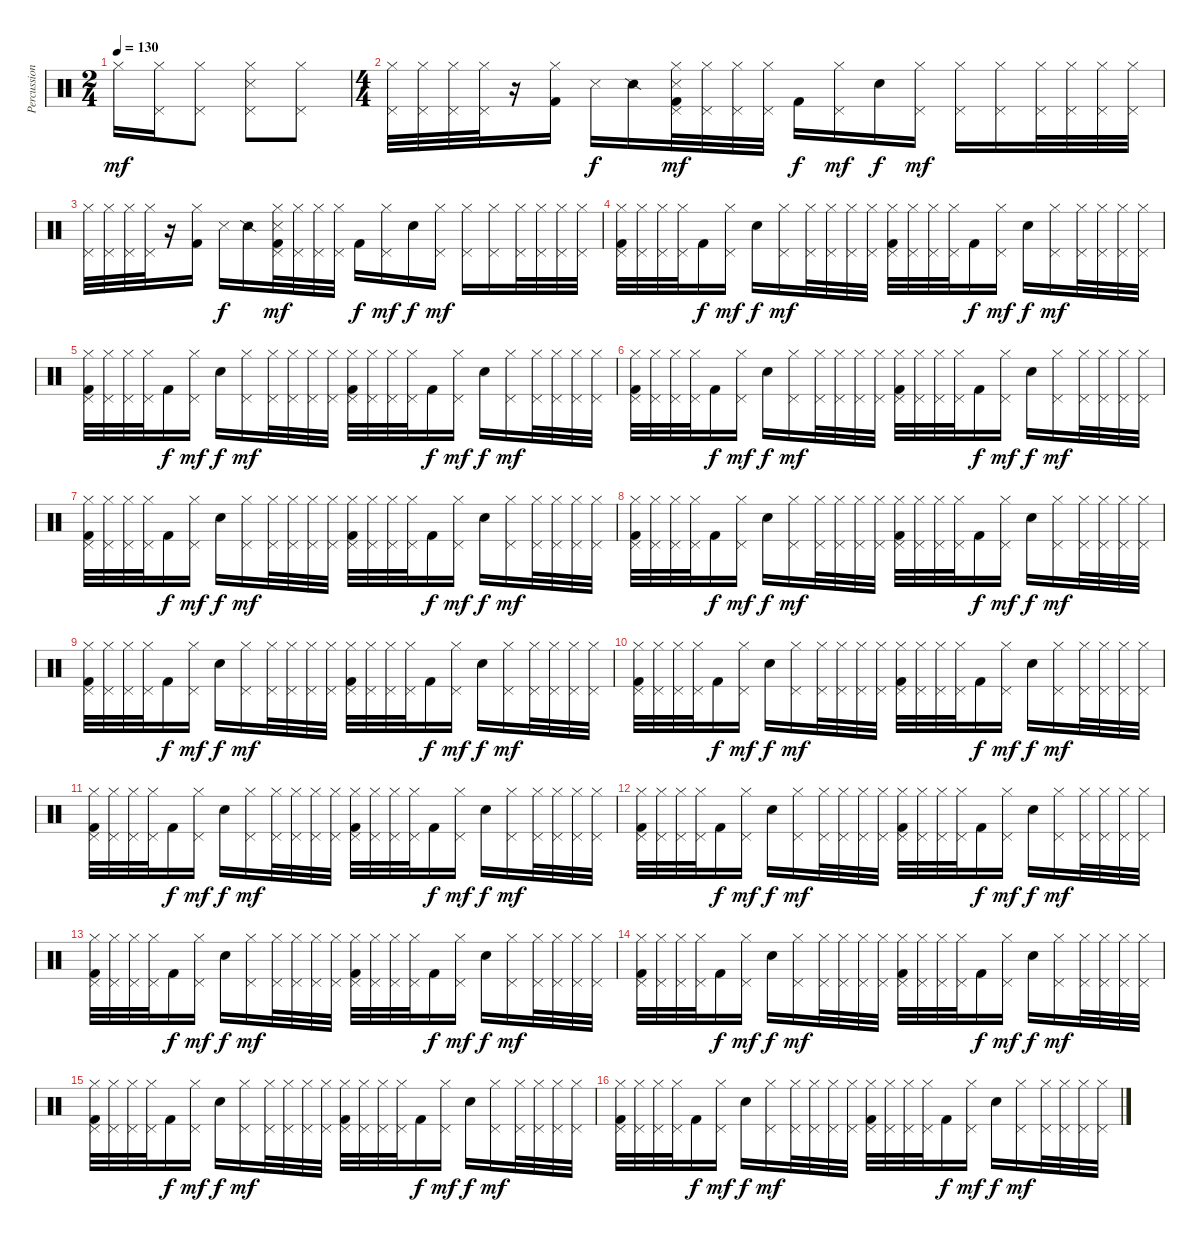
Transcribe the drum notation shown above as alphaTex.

\track ("Percussion" "Percussion") {instrument percussion}
\staff {score}
\articulation defaults
\ts (2 4)
\tempo 130
\clef neutral
\ks c "Hi-Hat (closed)".16{dy mf}
("Hi-Hat (closed)" "Pedal Hi-Hat (hit)").16 ("Hi-Hat (closed)" "Pedal Hi-Hat (hit)").8 ("Snare (side stick) 3" "Hi-Hat (closed)" "Pedal Hi-Hat (hit)").8 ("Hi-Hat (closed)" "Pedal Hi-Hat (hit)").8 |
\ts (4 4)
("Hi-Hat (closed)" "Pedal Hi-Hat (hit)").32 ("Hi-Hat (closed)" "Pedal Hi-Hat (hit)").32 ("Hi-Hat (closed)" "Pedal Hi-Hat (hit)").32 ("Hi-Hat (closed)" "Pedal Hi-Hat (hit)").32 r.16 ("Kick (hit) 2" "Hi-Hat (closed)").16 "Snare (side stick) 3".16{dy f} "Snare (side stick) 2".16 ("Kick (hit) 2" "Snare (side stick) 3" "Hi-Hat (closed)" "Pedal Hi-Hat (hit)").32{dy mf} ("Hi-Hat (closed)" "Pedal Hi-Hat (hit)").32 ("Hi-Hat (closed)" "Pedal Hi-Hat (hit)").32 ("Hi-Hat (closed)" "Pedal Hi-Hat (hit)").32 "Kick (hit) 2".16{dy f} ("Hi-Hat (closed)" "Pedal Hi-Hat (hit)").16{dy mf} "Electric Snare (hit)".16{dy f} ("Hi-Hat (closed)" "Pedal Hi-Hat (hit)").16{dy mf} ("Hi-Hat (closed)" "Pedal Hi-Hat (hit)").16 ("Hi-Hat (closed)" "Pedal Hi-Hat (hit)").16 ("Hi-Hat (closed)" "Pedal Hi-Hat (hit)").32 ("Hi-Hat (closed)" "Pedal Hi-Hat (hit)").32 ("Hi-Hat (closed)" "Pedal Hi-Hat (hit)").32 ("Hi-Hat (closed)" "Pedal Hi-Hat (hit)").32 |
("Hi-Hat (closed)" "Pedal Hi-Hat (hit)").32 ("Hi-Hat (closed)" "Pedal Hi-Hat (hit)").32 ("Hi-Hat (closed)" "Pedal Hi-Hat (hit)").32 ("Hi-Hat (closed)" "Pedal Hi-Hat (hit)").32 r.16 ("Kick (hit) 2" "Hi-Hat (closed)").16 "Snare (side stick) 3".16{dy f} "Snare (side stick) 2".16 ("Kick (hit) 2" "Snare (side stick) 3" "Hi-Hat (closed)" "Pedal Hi-Hat (hit)").32{dy mf} ("Hi-Hat (closed)" "Pedal Hi-Hat (hit)").32 ("Hi-Hat (closed)" "Pedal Hi-Hat (hit)").32 ("Hi-Hat (closed)" "Pedal Hi-Hat (hit)").32 "Kick (hit) 2".16{dy f} ("Hi-Hat (closed)" "Pedal Hi-Hat (hit)").16{dy mf} "Electric Snare (hit)".16{dy f} ("Hi-Hat (closed)" "Pedal Hi-Hat (hit)").16{dy mf} ("Hi-Hat (closed)" "Pedal Hi-Hat (hit)").16 ("Hi-Hat (closed)" "Pedal Hi-Hat (hit)").16 ("Hi-Hat (closed)" "Pedal Hi-Hat (hit)").32 ("Hi-Hat (closed)" "Pedal Hi-Hat (hit)").32 ("Hi-Hat (closed)" "Pedal Hi-Hat (hit)").32 ("Hi-Hat (closed)" "Pedal Hi-Hat (hit)").32 |
("Kick (hit) 2" "Hi-Hat (closed)" "Pedal Hi-Hat (hit)").32 ("Hi-Hat (closed)" "Pedal Hi-Hat (hit)").32 ("Hi-Hat (closed)" "Pedal Hi-Hat (hit)").32 ("Hi-Hat (closed)" "Pedal Hi-Hat (hit)").32 "Kick (hit) 2".16{dy f} ("Hi-Hat (closed)" "Pedal Hi-Hat (hit)").16{dy mf} "Electric Snare (hit)".16{dy f} ("Hi-Hat (closed)" "Pedal Hi-Hat (hit)").16{dy mf} ("Hi-Hat (closed)" "Pedal Hi-Hat (hit)").32 ("Hi-Hat (closed)" "Pedal Hi-Hat (hit)").32 ("Hi-Hat (closed)" "Pedal Hi-Hat (hit)").32 ("Hi-Hat (closed)" "Pedal Hi-Hat (hit)").32 ("Kick (hit) 2" "Hi-Hat (closed)" "Pedal Hi-Hat (hit)").32 ("Hi-Hat (closed)" "Pedal Hi-Hat (hit)").32 ("Hi-Hat (closed)" "Pedal Hi-Hat (hit)").32 ("Hi-Hat (closed)" "Pedal Hi-Hat (hit)").32 "Kick (hit) 2".16{dy f} ("Hi-Hat (closed)" "Pedal Hi-Hat (hit)").16{dy mf} "Electric Snare (hit)".16{dy f} ("Hi-Hat (closed)" "Pedal Hi-Hat (hit)").16{dy mf} ("Hi-Hat (closed)" "Pedal Hi-Hat (hit)").32 ("Hi-Hat (closed)" "Pedal Hi-Hat (hit)").32 ("Hi-Hat (closed)" "Pedal Hi-Hat (hit)").32 ("Hi-Hat (closed)" "Pedal Hi-Hat (hit)").32 |
("Kick (hit) 2" "Hi-Hat (closed)" "Pedal Hi-Hat (hit)").32 ("Hi-Hat (closed)" "Pedal Hi-Hat (hit)").32 ("Hi-Hat (closed)" "Pedal Hi-Hat (hit)").32 ("Hi-Hat (closed)" "Pedal Hi-Hat (hit)").32 "Kick (hit) 2".16{dy f} ("Hi-Hat (closed)" "Pedal Hi-Hat (hit)").16{dy mf} "Electric Snare (hit)".16{dy f} ("Hi-Hat (closed)" "Pedal Hi-Hat (hit)").16{dy mf} ("Hi-Hat (closed)" "Pedal Hi-Hat (hit)").32 ("Hi-Hat (closed)" "Pedal Hi-Hat (hit)").32 ("Hi-Hat (closed)" "Pedal Hi-Hat (hit)").32 ("Hi-Hat (closed)" "Pedal Hi-Hat (hit)").32 ("Kick (hit) 2" "Hi-Hat (closed)" "Pedal Hi-Hat (hit)").32 ("Hi-Hat (closed)" "Pedal Hi-Hat (hit)").32 ("Hi-Hat (closed)" "Pedal Hi-Hat (hit)").32 ("Hi-Hat (closed)" "Pedal Hi-Hat (hit)").32 "Kick (hit) 2".16{dy f} ("Hi-Hat (closed)" "Pedal Hi-Hat (hit)").16{dy mf} "Electric Snare (hit)".16{dy f} ("Hi-Hat (closed)" "Pedal Hi-Hat (hit)").16{dy mf} ("Hi-Hat (closed)" "Pedal Hi-Hat (hit)").32 ("Hi-Hat (closed)" "Pedal Hi-Hat (hit)").32 ("Hi-Hat (closed)" "Pedal Hi-Hat (hit)").32 ("Hi-Hat (closed)" "Pedal Hi-Hat (hit)").32 |
("Kick (hit) 2" "Hi-Hat (closed)" "Pedal Hi-Hat (hit)").32 ("Hi-Hat (closed)" "Pedal Hi-Hat (hit)").32 ("Hi-Hat (closed)" "Pedal Hi-Hat (hit)").32 ("Hi-Hat (closed)" "Pedal Hi-Hat (hit)").32 "Kick (hit) 2".16{dy f} ("Hi-Hat (closed)" "Pedal Hi-Hat (hit)").16{dy mf} "Electric Snare (hit)".16{dy f} ("Hi-Hat (closed)" "Pedal Hi-Hat (hit)").16{dy mf} ("Hi-Hat (closed)" "Pedal Hi-Hat (hit)").32 ("Hi-Hat (closed)" "Pedal Hi-Hat (hit)").32 ("Hi-Hat (closed)" "Pedal Hi-Hat (hit)").32 ("Hi-Hat (closed)" "Pedal Hi-Hat (hit)").32 ("Kick (hit) 2" "Hi-Hat (closed)" "Pedal Hi-Hat (hit)").32 ("Hi-Hat (closed)" "Pedal Hi-Hat (hit)").32 ("Hi-Hat (closed)" "Pedal Hi-Hat (hit)").32 ("Hi-Hat (closed)" "Pedal Hi-Hat (hit)").32 "Kick (hit) 2".16{dy f} ("Hi-Hat (closed)" "Pedal Hi-Hat (hit)").16{dy mf} "Electric Snare (hit)".16{dy f} ("Hi-Hat (closed)" "Pedal Hi-Hat (hit)").16{dy mf} ("Hi-Hat (closed)" "Pedal Hi-Hat (hit)").32 ("Hi-Hat (closed)" "Pedal Hi-Hat (hit)").32 ("Hi-Hat (closed)" "Pedal Hi-Hat (hit)").32 ("Hi-Hat (closed)" "Pedal Hi-Hat (hit)").32 |
("Kick (hit) 2" "Hi-Hat (closed)" "Pedal Hi-Hat (hit)").32 ("Hi-Hat (closed)" "Pedal Hi-Hat (hit)").32 ("Hi-Hat (closed)" "Pedal Hi-Hat (hit)").32 ("Hi-Hat (closed)" "Pedal Hi-Hat (hit)").32 "Kick (hit) 2".16{dy f} ("Hi-Hat (closed)" "Pedal Hi-Hat (hit)").16{dy mf} "Electric Snare (hit)".16{dy f} ("Hi-Hat (closed)" "Pedal Hi-Hat (hit)").16{dy mf} ("Hi-Hat (closed)" "Pedal Hi-Hat (hit)").32 ("Hi-Hat (closed)" "Pedal Hi-Hat (hit)").32 ("Hi-Hat (closed)" "Pedal Hi-Hat (hit)").32 ("Hi-Hat (closed)" "Pedal Hi-Hat (hit)").32 ("Kick (hit) 2" "Hi-Hat (closed)" "Pedal Hi-Hat (hit)").32 ("Hi-Hat (closed)" "Pedal Hi-Hat (hit)").32 ("Hi-Hat (closed)" "Pedal Hi-Hat (hit)").32 ("Hi-Hat (closed)" "Pedal Hi-Hat (hit)").32 "Kick (hit) 2".16{dy f} ("Hi-Hat (closed)" "Pedal Hi-Hat (hit)").16{dy mf} "Electric Snare (hit)".16{dy f} ("Hi-Hat (closed)" "Pedal Hi-Hat (hit)").16{dy mf} ("Hi-Hat (closed)" "Pedal Hi-Hat (hit)").32 ("Hi-Hat (closed)" "Pedal Hi-Hat (hit)").32 ("Hi-Hat (closed)" "Pedal Hi-Hat (hit)").32 ("Hi-Hat (closed)" "Pedal Hi-Hat (hit)").32 |
("Kick (hit) 2" "Hi-Hat (closed)" "Pedal Hi-Hat (hit)").32 ("Hi-Hat (closed)" "Pedal Hi-Hat (hit)").32 ("Hi-Hat (closed)" "Pedal Hi-Hat (hit)").32 ("Hi-Hat (closed)" "Pedal Hi-Hat (hit)").32 "Kick (hit) 2".16{dy f} ("Hi-Hat (closed)" "Pedal Hi-Hat (hit)").16{dy mf} "Electric Snare (hit)".16{dy f} ("Hi-Hat (closed)" "Pedal Hi-Hat (hit)").16{dy mf} ("Hi-Hat (closed)" "Pedal Hi-Hat (hit)").32 ("Hi-Hat (closed)" "Pedal Hi-Hat (hit)").32 ("Hi-Hat (closed)" "Pedal Hi-Hat (hit)").32 ("Hi-Hat (closed)" "Pedal Hi-Hat (hit)").32 ("Kick (hit) 2" "Hi-Hat (closed)" "Pedal Hi-Hat (hit)").32 ("Hi-Hat (closed)" "Pedal Hi-Hat (hit)").32 ("Hi-Hat (closed)" "Pedal Hi-Hat (hit)").32 ("Hi-Hat (closed)" "Pedal Hi-Hat (hit)").32 "Kick (hit) 2".16{dy f} ("Hi-Hat (closed)" "Pedal Hi-Hat (hit)").16{dy mf} "Electric Snare (hit)".16{dy f} ("Hi-Hat (closed)" "Pedal Hi-Hat (hit)").16{dy mf} ("Hi-Hat (closed)" "Pedal Hi-Hat (hit)").32 ("Hi-Hat (closed)" "Pedal Hi-Hat (hit)").32 ("Hi-Hat (closed)" "Pedal Hi-Hat (hit)").32 ("Hi-Hat (closed)" "Pedal Hi-Hat (hit)").32 |
("Kick (hit) 2" "Hi-Hat (closed)" "Pedal Hi-Hat (hit)").32 ("Hi-Hat (closed)" "Pedal Hi-Hat (hit)").32 ("Hi-Hat (closed)" "Pedal Hi-Hat (hit)").32 ("Hi-Hat (closed)" "Pedal Hi-Hat (hit)").32 "Kick (hit) 2".16{dy f} ("Hi-Hat (closed)" "Pedal Hi-Hat (hit)").16{dy mf} "Electric Snare (hit)".16{dy f} ("Hi-Hat (closed)" "Pedal Hi-Hat (hit)").16{dy mf} ("Hi-Hat (closed)" "Pedal Hi-Hat (hit)").32 ("Hi-Hat (closed)" "Pedal Hi-Hat (hit)").32 ("Hi-Hat (closed)" "Pedal Hi-Hat (hit)").32 ("Hi-Hat (closed)" "Pedal Hi-Hat (hit)").32 ("Kick (hit) 2" "Hi-Hat (closed)" "Pedal Hi-Hat (hit)").32 ("Hi-Hat (closed)" "Pedal Hi-Hat (hit)").32 ("Hi-Hat (closed)" "Pedal Hi-Hat (hit)").32 ("Hi-Hat (closed)" "Pedal Hi-Hat (hit)").32 "Kick (hit) 2".16{dy f} ("Hi-Hat (closed)" "Pedal Hi-Hat (hit)").16{dy mf} "Electric Snare (hit)".16{dy f} ("Hi-Hat (closed)" "Pedal Hi-Hat (hit)").16{dy mf} ("Hi-Hat (closed)" "Pedal Hi-Hat (hit)").32 ("Hi-Hat (closed)" "Pedal Hi-Hat (hit)").32 ("Hi-Hat (closed)" "Pedal Hi-Hat (hit)").32 ("Hi-Hat (closed)" "Pedal Hi-Hat (hit)").32 |
("Kick (hit) 2" "Hi-Hat (closed)" "Pedal Hi-Hat (hit)").32 ("Hi-Hat (closed)" "Pedal Hi-Hat (hit)").32 ("Hi-Hat (closed)" "Pedal Hi-Hat (hit)").32 ("Hi-Hat (closed)" "Pedal Hi-Hat (hit)").32 "Kick (hit) 2".16{dy f} ("Hi-Hat (closed)" "Pedal Hi-Hat (hit)").16{dy mf} "Electric Snare (hit)".16{dy f} ("Hi-Hat (closed)" "Pedal Hi-Hat (hit)").16{dy mf} ("Hi-Hat (closed)" "Pedal Hi-Hat (hit)").32 ("Hi-Hat (closed)" "Pedal Hi-Hat (hit)").32 ("Hi-Hat (closed)" "Pedal Hi-Hat (hit)").32 ("Hi-Hat (closed)" "Pedal Hi-Hat (hit)").32 ("Kick (hit) 2" "Hi-Hat (closed)" "Pedal Hi-Hat (hit)").32 ("Hi-Hat (closed)" "Pedal Hi-Hat (hit)").32 ("Hi-Hat (closed)" "Pedal Hi-Hat (hit)").32 ("Hi-Hat (closed)" "Pedal Hi-Hat (hit)").32 "Kick (hit) 2".16{dy f} ("Hi-Hat (closed)" "Pedal Hi-Hat (hit)").16{dy mf} "Electric Snare (hit)".16{dy f} ("Hi-Hat (closed)" "Pedal Hi-Hat (hit)").16{dy mf} ("Hi-Hat (closed)" "Pedal Hi-Hat (hit)").32 ("Hi-Hat (closed)" "Pedal Hi-Hat (hit)").32 ("Hi-Hat (closed)" "Pedal Hi-Hat (hit)").32 ("Hi-Hat (closed)" "Pedal Hi-Hat (hit)").32 |
("Kick (hit) 2" "Hi-Hat (closed)" "Pedal Hi-Hat (hit)").32 ("Hi-Hat (closed)" "Pedal Hi-Hat (hit)").32 ("Hi-Hat (closed)" "Pedal Hi-Hat (hit)").32 ("Hi-Hat (closed)" "Pedal Hi-Hat (hit)").32 "Kick (hit) 2".16{dy f} ("Hi-Hat (closed)" "Pedal Hi-Hat (hit)").16{dy mf} "Electric Snare (hit)".16{dy f} ("Hi-Hat (closed)" "Pedal Hi-Hat (hit)").16{dy mf} ("Hi-Hat (closed)" "Pedal Hi-Hat (hit)").32 ("Hi-Hat (closed)" "Pedal Hi-Hat (hit)").32 ("Hi-Hat (closed)" "Pedal Hi-Hat (hit)").32 ("Hi-Hat (closed)" "Pedal Hi-Hat (hit)").32 ("Kick (hit) 2" "Hi-Hat (closed)" "Pedal Hi-Hat (hit)").32 ("Hi-Hat (closed)" "Pedal Hi-Hat (hit)").32 ("Hi-Hat (closed)" "Pedal Hi-Hat (hit)").32 ("Hi-Hat (closed)" "Pedal Hi-Hat (hit)").32 "Kick (hit) 2".16{dy f} ("Hi-Hat (closed)" "Pedal Hi-Hat (hit)").16{dy mf} "Electric Snare (hit)".16{dy f} ("Hi-Hat (closed)" "Pedal Hi-Hat (hit)").16{dy mf} ("Hi-Hat (closed)" "Pedal Hi-Hat (hit)").32 ("Hi-Hat (closed)" "Pedal Hi-Hat (hit)").32 ("Hi-Hat (closed)" "Pedal Hi-Hat (hit)").32 ("Hi-Hat (closed)" "Pedal Hi-Hat (hit)").32 |
("Kick (hit) 2" "Hi-Hat (closed)" "Pedal Hi-Hat (hit)").32 ("Hi-Hat (closed)" "Pedal Hi-Hat (hit)").32 ("Hi-Hat (closed)" "Pedal Hi-Hat (hit)").32 ("Hi-Hat (closed)" "Pedal Hi-Hat (hit)").32 "Kick (hit) 2".16{dy f} ("Hi-Hat (closed)" "Pedal Hi-Hat (hit)").16{dy mf} "Electric Snare (hit)".16{dy f} ("Hi-Hat (closed)" "Pedal Hi-Hat (hit)").16{dy mf} ("Hi-Hat (closed)" "Pedal Hi-Hat (hit)").32 ("Hi-Hat (closed)" "Pedal Hi-Hat (hit)").32 ("Hi-Hat (closed)" "Pedal Hi-Hat (hit)").32 ("Hi-Hat (closed)" "Pedal Hi-Hat (hit)").32 ("Kick (hit) 2" "Hi-Hat (closed)" "Pedal Hi-Hat (hit)").32 ("Hi-Hat (closed)" "Pedal Hi-Hat (hit)").32 ("Hi-Hat (closed)" "Pedal Hi-Hat (hit)").32 ("Hi-Hat (closed)" "Pedal Hi-Hat (hit)").32 "Kick (hit) 2".16{dy f} ("Hi-Hat (closed)" "Pedal Hi-Hat (hit)").16{dy mf} "Electric Snare (hit)".16{dy f} ("Hi-Hat (closed)" "Pedal Hi-Hat (hit)").16{dy mf} ("Hi-Hat (closed)" "Pedal Hi-Hat (hit)").32 ("Hi-Hat (closed)" "Pedal Hi-Hat (hit)").32 ("Hi-Hat (closed)" "Pedal Hi-Hat (hit)").32 ("Hi-Hat (closed)" "Pedal Hi-Hat (hit)").32 |
("Kick (hit) 2" "Hi-Hat (closed)" "Pedal Hi-Hat (hit)").32 ("Hi-Hat (closed)" "Pedal Hi-Hat (hit)").32 ("Hi-Hat (closed)" "Pedal Hi-Hat (hit)").32 ("Hi-Hat (closed)" "Pedal Hi-Hat (hit)").32 "Kick (hit) 2".16{dy f} ("Hi-Hat (closed)" "Pedal Hi-Hat (hit)").16{dy mf} "Electric Snare (hit)".16{dy f} ("Hi-Hat (closed)" "Pedal Hi-Hat (hit)").16{dy mf} ("Hi-Hat (closed)" "Pedal Hi-Hat (hit)").32 ("Hi-Hat (closed)" "Pedal Hi-Hat (hit)").32 ("Hi-Hat (closed)" "Pedal Hi-Hat (hit)").32 ("Hi-Hat (closed)" "Pedal Hi-Hat (hit)").32 ("Kick (hit) 2" "Hi-Hat (closed)" "Pedal Hi-Hat (hit)").32 ("Hi-Hat (closed)" "Pedal Hi-Hat (hit)").32 ("Hi-Hat (closed)" "Pedal Hi-Hat (hit)").32 ("Hi-Hat (closed)" "Pedal Hi-Hat (hit)").32 "Kick (hit) 2".16{dy f} ("Hi-Hat (closed)" "Pedal Hi-Hat (hit)").16{dy mf} "Electric Snare (hit)".16{dy f} ("Hi-Hat (closed)" "Pedal Hi-Hat (hit)").16{dy mf} ("Hi-Hat (closed)" "Pedal Hi-Hat (hit)").32 ("Hi-Hat (closed)" "Pedal Hi-Hat (hit)").32 ("Hi-Hat (closed)" "Pedal Hi-Hat (hit)").32 ("Hi-Hat (closed)" "Pedal Hi-Hat (hit)").32 |
("Kick (hit) 2" "Hi-Hat (closed)" "Pedal Hi-Hat (hit)").32 ("Hi-Hat (closed)" "Pedal Hi-Hat (hit)").32 ("Hi-Hat (closed)" "Pedal Hi-Hat (hit)").32 ("Hi-Hat (closed)" "Pedal Hi-Hat (hit)").32 "Kick (hit) 2".16{dy f} ("Hi-Hat (closed)" "Pedal Hi-Hat (hit)").16{dy mf} "Electric Snare (hit)".16{dy f} ("Hi-Hat (closed)" "Pedal Hi-Hat (hit)").16{dy mf} ("Hi-Hat (closed)" "Pedal Hi-Hat (hit)").32 ("Hi-Hat (closed)" "Pedal Hi-Hat (hit)").32 ("Hi-Hat (closed)" "Pedal Hi-Hat (hit)").32 ("Hi-Hat (closed)" "Pedal Hi-Hat (hit)").32 ("Kick (hit) 2" "Hi-Hat (closed)" "Pedal Hi-Hat (hit)").32 ("Hi-Hat (closed)" "Pedal Hi-Hat (hit)").32 ("Hi-Hat (closed)" "Pedal Hi-Hat (hit)").32 ("Hi-Hat (closed)" "Pedal Hi-Hat (hit)").32 "Kick (hit) 2".16{dy f} ("Hi-Hat (closed)" "Pedal Hi-Hat (hit)").16{dy mf} "Electric Snare (hit)".16{dy f} ("Hi-Hat (closed)" "Pedal Hi-Hat (hit)").16{dy mf} ("Hi-Hat (closed)" "Pedal Hi-Hat (hit)").32 ("Hi-Hat (closed)" "Pedal Hi-Hat (hit)").32 ("Hi-Hat (closed)" "Pedal Hi-Hat (hit)").32 ("Hi-Hat (closed)" "Pedal Hi-Hat (hit)").32 |
("Kick (hit) 2" "Hi-Hat (closed)" "Pedal Hi-Hat (hit)").32 ("Hi-Hat (closed)" "Pedal Hi-Hat (hit)").32 ("Hi-Hat (closed)" "Pedal Hi-Hat (hit)").32 ("Hi-Hat (closed)" "Pedal Hi-Hat (hit)").32 "Kick (hit) 2".16{dy f} ("Hi-Hat (closed)" "Pedal Hi-Hat (hit)").16{dy mf} "Electric Snare (hit)".16{dy f} ("Hi-Hat (closed)" "Pedal Hi-Hat (hit)").16{dy mf} ("Hi-Hat (closed)" "Pedal Hi-Hat (hit)").32 ("Hi-Hat (closed)" "Pedal Hi-Hat (hit)").32 ("Hi-Hat (closed)" "Pedal Hi-Hat (hit)").32 ("Hi-Hat (closed)" "Pedal Hi-Hat (hit)").32 ("Kick (hit) 2" "Hi-Hat (closed)" "Pedal Hi-Hat (hit)").32 ("Hi-Hat (closed)" "Pedal Hi-Hat (hit)").32 ("Hi-Hat (closed)" "Pedal Hi-Hat (hit)").32 ("Hi-Hat (closed)" "Pedal Hi-Hat (hit)").32 "Kick (hit) 2".16{dy f} ("Hi-Hat (closed)" "Pedal Hi-Hat (hit)").16{dy mf} "Electric Snare (hit)".16{dy f} ("Hi-Hat (closed)" "Pedal Hi-Hat (hit)").16{dy mf} ("Hi-Hat (closed)" "Pedal Hi-Hat (hit)").32 ("Hi-Hat (closed)" "Pedal Hi-Hat (hit)").32 ("Hi-Hat (closed)" "Pedal Hi-Hat (hit)").32 ("Hi-Hat (closed)" "Pedal Hi-Hat (hit)").32 |
("Kick (hit) 2" "Hi-Hat (closed)" "Pedal Hi-Hat (hit)").32 ("Hi-Hat (closed)" "Pedal Hi-Hat (hit)").32 ("Hi-Hat (closed)" "Pedal Hi-Hat (hit)").32 ("Hi-Hat (closed)" "Pedal Hi-Hat (hit)").32 "Kick (hit) 2".16{dy f} ("Hi-Hat (closed)" "Pedal Hi-Hat (hit)").16{dy mf} "Electric Snare (hit)".16{dy f} ("Hi-Hat (closed)" "Pedal Hi-Hat (hit)").16{dy mf} ("Hi-Hat (closed)" "Pedal Hi-Hat (hit)").32 ("Hi-Hat (closed)" "Pedal Hi-Hat (hit)").32 ("Hi-Hat (closed)" "Pedal Hi-Hat (hit)").32 ("Hi-Hat (closed)" "Pedal Hi-Hat (hit)").32 ("Kick (hit) 2" "Hi-Hat (closed)" "Pedal Hi-Hat (hit)").32 ("Hi-Hat (closed)" "Pedal Hi-Hat (hit)").32 ("Hi-Hat (closed)" "Pedal Hi-Hat (hit)").32 ("Hi-Hat (closed)" "Pedal Hi-Hat (hit)").32 "Kick (hit) 2".16{dy f} ("Hi-Hat (closed)" "Pedal Hi-Hat (hit)").16{dy mf} "Electric Snare (hit)".16{dy f} ("Hi-Hat (closed)" "Pedal Hi-Hat (hit)").16{dy mf} ("Hi-Hat (closed)" "Pedal Hi-Hat (hit)").32 ("Hi-Hat (closed)" "Pedal Hi-Hat (hit)").32 ("Hi-Hat (closed)" "Pedal Hi-Hat (hit)").32 ("Hi-Hat (closed)" "Pedal Hi-Hat (hit)").32
